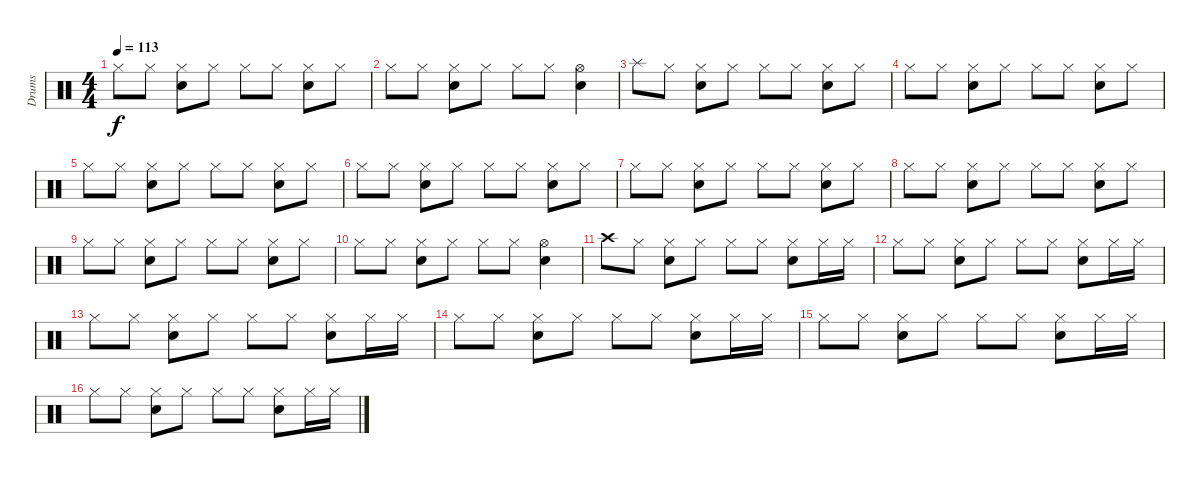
\track ("Drums" "Drums") {instrument percussion}
\staff {score}
\articulation defaults
\ts (4 4)
\tempo 113
\clef neutral
\ks c "Hi-Hat (closed)".8{dy f} "Hi-Hat (closed)".8
("Hi-Hat (closed)" "Snare (hit) 2").8 "Hi-Hat (closed)".8 "Hi-Hat (closed)".8 "Hi-Hat (closed)".8 ("Hi-Hat (closed)" "Snare (hit) 2").8 "Hi-Hat (closed)".8 |
"Hi-Hat (closed)".8 "Hi-Hat (closed)".8 ("Hi-Hat (closed)" "Snare (hit) 2").8 "Hi-Hat (closed)".8 "Hi-Hat (closed)".8 "Hi-Hat (closed)".8 ("Hi-Hat (open)" "Snare (hit) 2").4 |
"Splash (hit)".8 "Hi-Hat (closed)".8 ("Hi-Hat (closed)" "Snare (hit) 2").8 "Hi-Hat (closed)".8 "Hi-Hat (closed)".8 "Hi-Hat (closed)".8 ("Hi-Hat (closed)" "Snare (hit) 2").8 "Hi-Hat (closed)".8 |
"Hi-Hat (closed)".8 "Hi-Hat (closed)".8 ("Hi-Hat (closed)" "Snare (hit) 2").8 "Hi-Hat (closed)".8 "Hi-Hat (closed)".8 "Hi-Hat (closed)".8 ("Hi-Hat (closed)" "Snare (hit) 2").8 "Hi-Hat (closed)".8 |
"Hi-Hat (closed)".8 "Hi-Hat (closed)".8 ("Hi-Hat (closed)" "Snare (hit) 2").8 "Hi-Hat (closed)".8 "Hi-Hat (closed)".8 "Hi-Hat (closed)".8 ("Hi-Hat (closed)" "Snare (hit) 2").8 "Hi-Hat (closed)".8 |
"Hi-Hat (closed)".8 "Hi-Hat (closed)".8 ("Hi-Hat (closed)" "Snare (hit) 2").8 "Hi-Hat (closed)".8 "Hi-Hat (closed)".8 "Hi-Hat (closed)".8 ("Hi-Hat (closed)" "Snare (hit) 2").8 "Hi-Hat (closed)".8 |
"Hi-Hat (closed)".8 "Hi-Hat (closed)".8 ("Hi-Hat (closed)" "Snare (hit) 2").8 "Hi-Hat (closed)".8 "Hi-Hat (closed)".8 "Hi-Hat (closed)".8 ("Hi-Hat (closed)" "Snare (hit) 2").8 "Hi-Hat (closed)".8 |
"Hi-Hat (closed)".8 "Hi-Hat (closed)".8 ("Hi-Hat (closed)" "Snare (hit) 2").8 "Hi-Hat (closed)".8 "Hi-Hat (closed)".8 "Hi-Hat (closed)".8 ("Hi-Hat (closed)" "Snare (hit) 2").8 "Hi-Hat (closed)".8 |
"Hi-Hat (closed)".8 "Hi-Hat (closed)".8 ("Hi-Hat (closed)" "Snare (hit) 2").8 "Hi-Hat (closed)".8 "Hi-Hat (closed)".8 "Hi-Hat (closed)".8 ("Hi-Hat (closed)" "Snare (hit) 2").8 "Hi-Hat (closed)".8 |
"Hi-Hat (closed)".8 "Hi-Hat (closed)".8 ("Hi-Hat (closed)" "Snare (hit) 2").8 "Hi-Hat (closed)".8 "Hi-Hat (closed)".8 "Hi-Hat (closed)".8 ("Hi-Hat (open)" "Snare (hit) 2").4 |
"Crash high (hit)".8 "Hi-Hat (closed)".8 ("Hi-Hat (closed)" "Snare (hit) 2").8 "Hi-Hat (closed)".8 "Hi-Hat (closed)".8 "Hi-Hat (closed)".8 ("Hi-Hat (closed)" "Snare (hit) 2").8 "Hi-Hat (closed)".16 "Hi-Hat (closed)".16 |
"Hi-Hat (closed)".8 "Hi-Hat (closed)".8 ("Hi-Hat (closed)" "Snare (hit) 2").8 "Hi-Hat (closed)".8 "Hi-Hat (closed)".8 "Hi-Hat (closed)".8 ("Hi-Hat (closed)" "Snare (hit) 2").8 "Hi-Hat (closed)".16 "Hi-Hat (closed)".16 |
"Hi-Hat (closed)".8 "Hi-Hat (closed)".8 ("Hi-Hat (closed)" "Snare (hit) 2").8 "Hi-Hat (closed)".8 "Hi-Hat (closed)".8 "Hi-Hat (closed)".8 ("Hi-Hat (closed)" "Snare (hit) 2").8 "Hi-Hat (closed)".16 "Hi-Hat (closed)".16 |
"Hi-Hat (closed)".8 "Hi-Hat (closed)".8 ("Hi-Hat (closed)" "Snare (hit) 2").8 "Hi-Hat (closed)".8 "Hi-Hat (closed)".8 "Hi-Hat (closed)".8 ("Hi-Hat (closed)" "Snare (hit) 2").8 "Hi-Hat (closed)".16 "Hi-Hat (closed)".16 |
"Hi-Hat (closed)".8 "Hi-Hat (closed)".8 ("Hi-Hat (closed)" "Snare (hit) 2").8 "Hi-Hat (closed)".8 "Hi-Hat (closed)".8 "Hi-Hat (closed)".8 ("Hi-Hat (closed)" "Snare (hit) 2").8 "Hi-Hat (closed)".16 "Hi-Hat (closed)".16 |
"Hi-Hat (closed)".8 "Hi-Hat (closed)".8 ("Hi-Hat (closed)" "Snare (hit) 2").8 "Hi-Hat (closed)".8 "Hi-Hat (closed)".8 "Hi-Hat (closed)".8 ("Hi-Hat (closed)" "Snare (hit) 2").8 "Hi-Hat (closed)".16 "Hi-Hat (closed)".16
